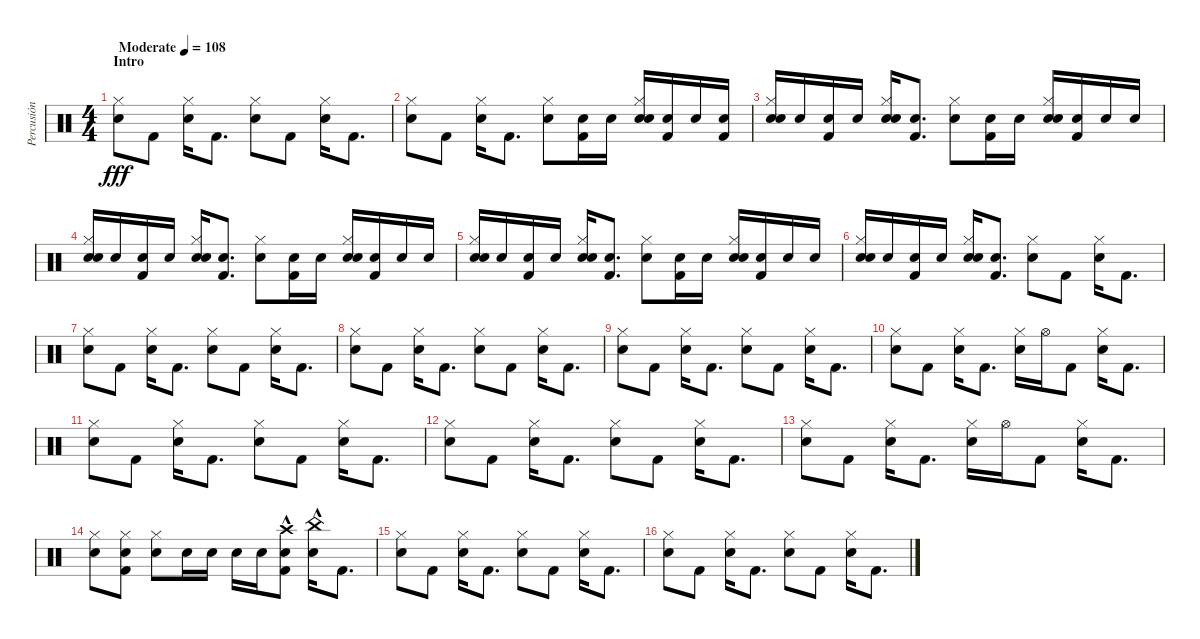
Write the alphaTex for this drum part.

\track ("Percusión" "Percusión") {instrument percussion}
\staff {score}
\articulation defaults
\ts (4 4)
\section ("" "Intro")
\tempo (108 "Moderate")
\clef neutral
\ks c
("Snare (hit) 2" "Hi-Hat (closed)").8{dy fff} "Kick (hit) 2".8 ("Snare (hit) 2" "Hi-Hat (closed)").16 "Kick (hit) 2".8{d} ("Snare (hit) 2" "Hi-Hat (closed)").8 "Kick (hit) 2".8 ("Snare (hit) 2" "Hi-Hat (closed)").16 "Kick (hit) 2".8{d} |
("Snare (hit) 2" "Hi-Hat (closed)").8 "Kick (hit) 2".8 ("Snare (hit) 2" "Hi-Hat (closed)").16 "Kick (hit) 2".8{d} ("Snare (hit) 2" "Hi-Hat (closed)").8 ("Kick (hit) 2" "Hand Clap (hit)").16 "Hand Clap (hit)".16 ("Snare (hit) 2" "Hi-Hat (closed)" "Hand Clap (hit)").16 ("Kick (hit) 2" "Hand Clap (hit)").16 "Hand Clap (hit)".16 ("Kick (hit) 2" "Hand Clap (hit)").16 |
("Snare (hit) 2" "Hi-Hat (closed)" "Hand Clap (hit)").16 "Hand Clap (hit)".16 ("Kick (hit) 2" "Hand Clap (hit)").16 "Hand Clap (hit)".16 ("Snare (hit) 2" "Hi-Hat (closed)" "Hand Clap (hit)").16 ("Kick (hit) 2" "Hand Clap (hit)").8{d} ("Snare (hit) 2" "Hi-Hat (closed)").8 ("Kick (hit) 2" "Hand Clap (hit)").16 "Hand Clap (hit)".16 ("Snare (hit) 2" "Hi-Hat (closed)" "Hand Clap (hit)").16 ("Kick (hit) 2" "Hand Clap (hit)").16 "Hand Clap (hit)".16 "Hand Clap (hit)".16 |
("Snare (hit) 2" "Hi-Hat (closed)" "Hand Clap (hit)").16 "Hand Clap (hit)".16 ("Kick (hit) 2" "Hand Clap (hit)").16 "Hand Clap (hit)".16 ("Snare (hit) 2" "Hi-Hat (closed)" "Hand Clap (hit)").16 ("Kick (hit) 2" "Hand Clap (hit)").8{d} ("Snare (hit) 2" "Hi-Hat (closed)").8 ("Kick (hit) 2" "Hand Clap (hit)").16 "Hand Clap (hit)".16 ("Snare (hit) 2" "Hi-Hat (closed)" "Hand Clap (hit)").16 ("Kick (hit) 2" "Hand Clap (hit)").16 "Hand Clap (hit)".16 "Hand Clap (hit)".16 |
("Snare (hit) 2" "Hi-Hat (closed)" "Hand Clap (hit)").16 "Hand Clap (hit)".16 ("Kick (hit) 2" "Hand Clap (hit)").16 "Hand Clap (hit)".16 ("Snare (hit) 2" "Hi-Hat (closed)" "Hand Clap (hit)").16 ("Kick (hit) 2" "Hand Clap (hit)").8{d} ("Snare (hit) 2" "Hi-Hat (closed)").8 ("Kick (hit) 2" "Hand Clap (hit)").16 "Hand Clap (hit)".16 ("Snare (hit) 2" "Hi-Hat (closed)" "Hand Clap (hit)").16 ("Kick (hit) 2" "Hand Clap (hit)").16 "Hand Clap (hit)".16 "Hand Clap (hit)".16 |
("Snare (hit) 2" "Hi-Hat (closed)" "Hand Clap (hit)").16 "Hand Clap (hit)".16 ("Kick (hit) 2" "Hand Clap (hit)").16 "Hand Clap (hit)".16 ("Snare (hit) 2" "Hi-Hat (closed)" "Hand Clap (hit)").16 ("Kick (hit) 2" "Hand Clap (hit)").8{d} ("Snare (hit) 2" "Hi-Hat (closed)").8 "Kick (hit) 2".8 ("Snare (hit) 2" "Hi-Hat (closed)").16 "Kick (hit) 2".8{d} |
("Snare (hit) 2" "Hi-Hat (closed)").8 "Kick (hit) 2".8 ("Snare (hit) 2" "Hi-Hat (closed)").16 "Kick (hit) 2".8{d} ("Snare (hit) 2" "Hi-Hat (closed)").8 "Kick (hit) 2".8 ("Snare (hit) 2" "Hi-Hat (closed)").16 "Kick (hit) 2".8{d} |
("Snare (hit) 2" "Hi-Hat (closed)").8 "Kick (hit) 2".8 ("Snare (hit) 2" "Hi-Hat (closed)").16 "Kick (hit) 2".8{d} ("Snare (hit) 2" "Hi-Hat (closed)").8 "Kick (hit) 2".8 ("Snare (hit) 2" "Hi-Hat (closed)").16 "Kick (hit) 2".8{d} |
("Snare (hit) 2" "Hi-Hat (closed)").8 "Kick (hit) 2".8 ("Snare (hit) 2" "Hi-Hat (closed)").16 "Kick (hit) 2".8{d} ("Snare (hit) 2" "Hi-Hat (closed)").8 "Kick (hit) 2".8 ("Snare (hit) 2" "Hi-Hat (closed)").16 "Kick (hit) 2".8{d} |
("Snare (hit) 2" "Hi-Hat (closed)").8 "Kick (hit) 2".8 ("Snare (hit) 2" "Hi-Hat (closed)").16 "Kick (hit) 2".8{d} ("Snare (hit) 2" "Hi-Hat (closed)").16 "Hi-Hat (open)".16 "Kick (hit) 2".8 ("Snare (hit) 2" "Hi-Hat (closed)").16 "Kick (hit) 2".8{d} |
("Snare (hit) 2" "Hi-Hat (closed)").8 "Kick (hit) 2".8 ("Snare (hit) 2" "Hi-Hat (closed)").16 "Kick (hit) 2".8{d} ("Snare (hit) 2" "Hi-Hat (closed)").8 "Kick (hit) 2".8 ("Snare (hit) 2" "Hi-Hat (closed)").16 "Kick (hit) 2".8{d} |
("Snare (hit) 2" "Hi-Hat (closed)").8 "Kick (hit) 2".8 ("Snare (hit) 2" "Hi-Hat (closed)").16 "Kick (hit) 2".8{d} ("Snare (hit) 2" "Hi-Hat (closed)").8 "Kick (hit) 2".8 ("Snare (hit) 2" "Hi-Hat (closed)").16 "Kick (hit) 2".8{d} |
("Snare (hit) 2" "Hi-Hat (closed)").8 "Kick (hit) 2".8 ("Snare (hit) 2" "Hi-Hat (closed)").16 "Kick (hit) 2".8{d} ("Snare (hit) 2" "Hi-Hat (closed)").16 "Hi-Hat (open)".16 "Kick (hit) 2".8 ("Snare (hit) 2" "Hi-Hat (closed)").16 "Kick (hit) 2".8{d} |
("Snare (hit) 2" "Hi-Hat (closed)").8 ("Snare (hit) 2" "Hi-Hat (closed)" "Kick (hit) 2").8 ("Snare (hit) 2" "Hi-Hat (closed)").8 "Snare (hit) 2".16 "Snare (hit) 2".16 "Snare (hit) 2".16 "Snare (hit) 2".16 ("Snare (hit) 2" "Crash high (hit)"{hac} "Kick (hit) 2").8 ("Snare (hit) 2" "China (hit)"{hac}).16 "Kick (hit) 2".8{d} |
("Snare (hit) 2" "Hi-Hat (closed)").8 "Kick (hit) 2".8 ("Snare (hit) 2" "Hi-Hat (closed)").16 "Kick (hit) 2".8{d} ("Snare (hit) 2" "Hi-Hat (closed)").8 "Kick (hit) 2".8 ("Snare (hit) 2" "Hi-Hat (closed)").16 "Kick (hit) 2".8{d} |
("Snare (hit) 2" "Hi-Hat (closed)").8 "Kick (hit) 2".8 ("Snare (hit) 2" "Hi-Hat (closed)").16 "Kick (hit) 2".8{d} ("Snare (hit) 2" "Hi-Hat (closed)").8 "Kick (hit) 2".8 ("Snare (hit) 2" "Hi-Hat (closed)").16 "Kick (hit) 2".8{d}
